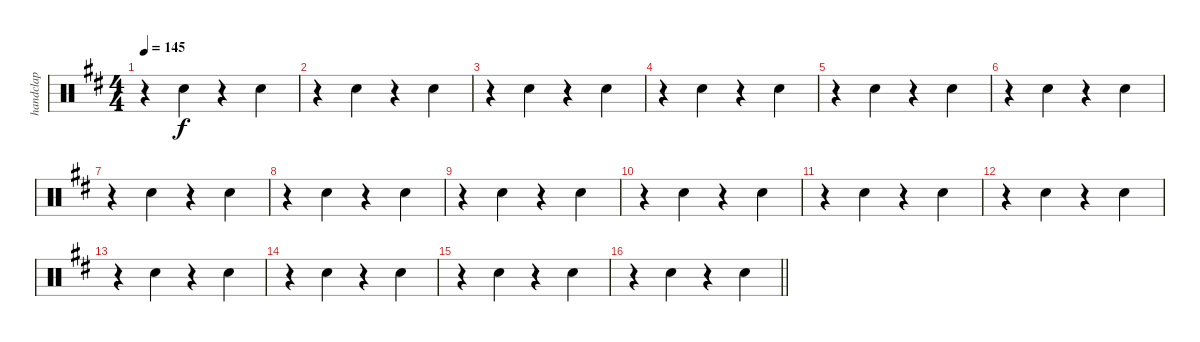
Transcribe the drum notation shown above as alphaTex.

\track ("handclap" "handclap") {instrument percussion}
\staff {score}
\articulation defaults
\ts (4 4)
\tempo 145
\clef neutral
\ks d
r.4{dy f} "Hand Clap (hit)".4 r.4 "Hand Clap (hit)".4 |
r.4 "Hand Clap (hit)".4 r.4 "Hand Clap (hit)".4 |
r.4 "Hand Clap (hit)".4 r.4 "Hand Clap (hit)".4 |
r.4 "Hand Clap (hit)".4 r.4 "Hand Clap (hit)".4 |
r.4 "Hand Clap (hit)".4 r.4 "Hand Clap (hit)".4 |
r.4 "Hand Clap (hit)".4 r.4 "Hand Clap (hit)".4 |
r.4 "Hand Clap (hit)".4 r.4 "Hand Clap (hit)".4 |
r.4 "Hand Clap (hit)".4 r.4 "Hand Clap (hit)".4 |
r.4 "Hand Clap (hit)".4 r.4 "Hand Clap (hit)".4 |
r.4 "Hand Clap (hit)".4 r.4 "Hand Clap (hit)".4 |
r.4 "Hand Clap (hit)".4 r.4 "Hand Clap (hit)".4 |
r.4 "Hand Clap (hit)".4 r.4 "Hand Clap (hit)".4 |
r.4 "Hand Clap (hit)".4 r.4 "Hand Clap (hit)".4 |
r.4 "Hand Clap (hit)".4 r.4 "Hand Clap (hit)".4 |
r.4 "Hand Clap (hit)".4 r.4 "Hand Clap (hit)".4 |
\barLineRight lightlight
r.4 "Hand Clap (hit)".4 r.4 "Hand Clap (hit)".4
